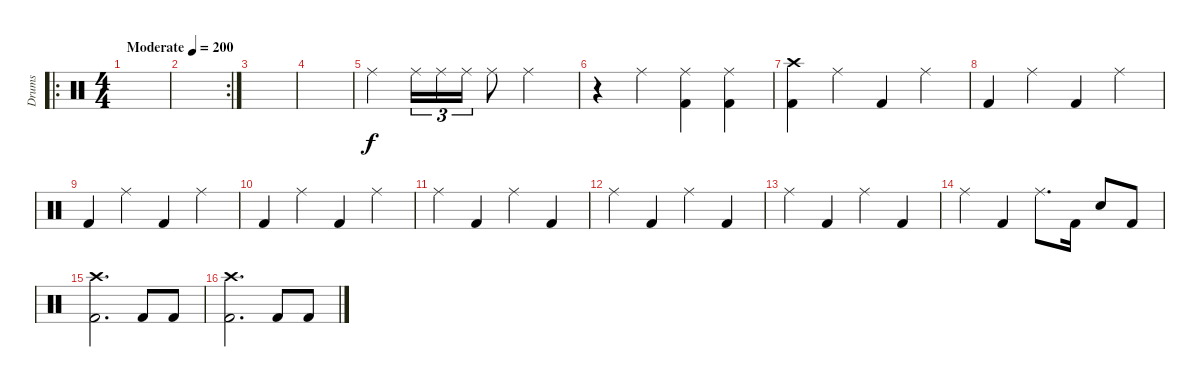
\track ("Drums" "Drums") {instrument percussion}
\staff {score}
\articulation defaults
\ro
\ts (4 4)
\tempo (200 "Moderate")
\clef neutral
\ks c
|
\rc 2
|
|
|
"Ride (middle)".4 "Ride (middle)".16{tu (3 2)} "Ride (middle)".16{tu (3 2)} "Ride (middle)".16{tu (3 2)} "Ride (middle)".8 "Ride (middle)".2 |
r.4 "Ride (middle)".4 ("Ride (middle)" "Kick (hit) 2").4 ("Ride (middle)" "Kick (hit) 2").4 |
("Crash high (hit)" "Kick (hit) 2").4 "Ride (middle)".4 "Kick (hit) 2".4 "Ride (middle)".4 |
"Kick (hit) 2".4 "Ride (middle)".4 "Kick (hit) 2".4 "Ride (middle)".4 |
"Kick (hit) 2".4 "Ride (middle)".4 "Kick (hit) 2".4 "Ride (middle)".4 |
"Kick (hit) 2".4 "Ride (middle)".4 "Kick (hit) 2".4 "Ride (middle)".4 |
"Ride (middle)".4 "Kick (hit) 2".4 "Ride (middle)".4 "Kick (hit) 2".4 |
"Ride (middle)".4 "Kick (hit) 2".4 "Ride (middle)".4 "Kick (hit) 2".4 |
"Ride (middle)".4 "Kick (hit) 2".4 "Ride (middle)".4 "Kick (hit) 2".4 |
"Ride (middle)".4 "Kick (hit) 2".4 "Ride (middle)".8{d} "Kick (hit) 2".16 "Electric Snare (hit)".8 "Kick (hit) 2".8 |
("Crash high (hit)" "Kick (hit) 2").2{d} "Kick (hit) 2".8 "Kick (hit) 2".8 |
("Crash high (hit)" "Kick (hit) 2").2{d} "Kick (hit) 2".8 "Kick (hit) 2".8
